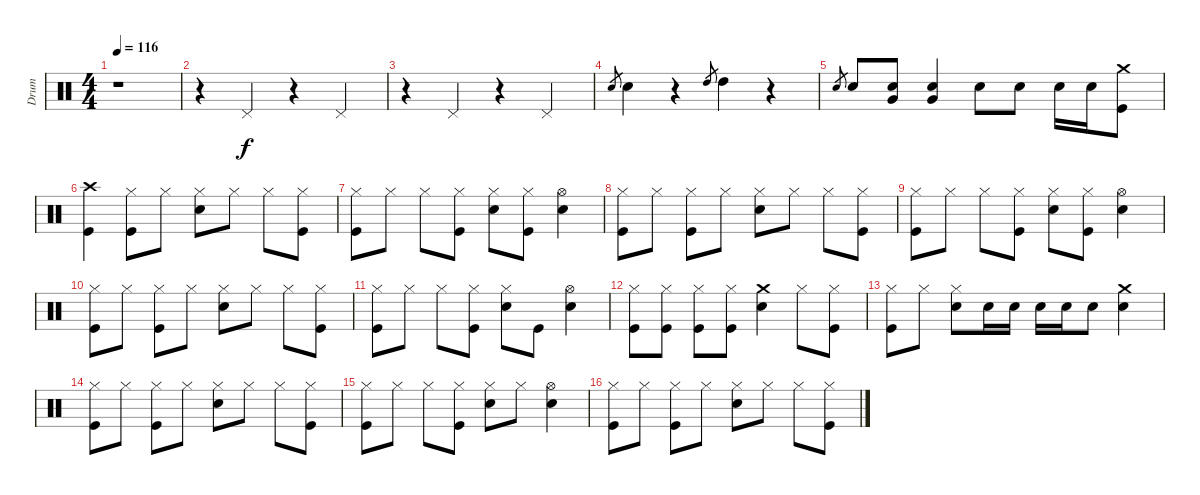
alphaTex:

\track ("Drum" "Drum") {instrument percussion}
\staff {score}
\articulation defaults
\ts (4 4)
\tempo 116
\clef neutral
\ks c
r.1{dy f} |
r.4 "Pedal Hi-Hat (hit)".4 r.4 "Pedal Hi-Hat (hit)".4 |
r.4 "Pedal Hi-Hat (hit)".4 r.4 "Pedal Hi-Hat (hit)".4 |
"Electric Snare (hit)".8{gr} "Electric Snare (hit)".4 r.4 "High Tom (hit)".8{gr} "High Tom (hit)".4 r.4 |
"Electric Snare (hit)".8{gr} "Electric Snare (hit)".8 ("Electric Snare (hit)" "Very Low Tom (hit)").8 ("Electric Snare (hit)" "Very Low Tom (hit)").4 "Electric Snare (hit)".8 "Electric Snare (hit)".8 "Electric Snare (hit)".16 "Electric Snare (hit)".16 ("Kick (hit)" "Crash medium (hit)").8 |
("Kick (hit)" "Crash high (hit)").4 ("Kick (hit)" "Hi-Hat (closed)").8 "Hi-Hat (closed)".8 ("Electric Snare (hit)" "Hi-Hat (closed)").8 "Hi-Hat (closed)".8 "Hi-Hat (closed)".8 ("Kick (hit)" "Hi-Hat (closed)").8 |
("Kick (hit)" "Hi-Hat (closed)").8 "Hi-Hat (closed)".8 "Hi-Hat (closed)".8 ("Kick (hit)" "Hi-Hat (closed)").8 ("Electric Snare (hit)" "Hi-Hat (closed)").8 ("Kick (hit)" "Hi-Hat (closed)").8 ("Electric Snare (hit)" "Hi-Hat (open)").4 |
("Kick (hit)" "Hi-Hat (closed)").8 "Hi-Hat (closed)".8 ("Kick (hit)" "Hi-Hat (closed)").8 "Hi-Hat (closed)".8 ("Electric Snare (hit)" "Hi-Hat (closed)").8 "Hi-Hat (closed)".8 "Hi-Hat (closed)".8 ("Kick (hit)" "Hi-Hat (closed)").8 |
("Kick (hit)" "Hi-Hat (closed)").8 "Hi-Hat (closed)".8 "Hi-Hat (closed)".8 ("Kick (hit)" "Hi-Hat (closed)").8 ("Electric Snare (hit)" "Hi-Hat (closed)").8 ("Kick (hit)" "Hi-Hat (closed)").8 ("Electric Snare (hit)" "Hi-Hat (open)").4 |
("Kick (hit)" "Hi-Hat (closed)").8 "Hi-Hat (closed)".8 ("Kick (hit)" "Hi-Hat (closed)").8 "Hi-Hat (closed)".8 ("Electric Snare (hit)" "Hi-Hat (closed)").8 "Hi-Hat (closed)".8 "Hi-Hat (closed)".8 ("Kick (hit)" "Hi-Hat (closed)").8 |
("Kick (hit)" "Hi-Hat (closed)").8 "Hi-Hat (closed)".8 "Hi-Hat (closed)".8 ("Kick (hit)" "Hi-Hat (closed)").8 ("Electric Snare (hit)" "Hi-Hat (closed)").8 "Kick (hit)".8 ("Electric Snare (hit)" "Hi-Hat (open)").4 |
("Kick (hit)" "Hi-Hat (closed)").8 ("Kick (hit)" "Hi-Hat (closed)").8 ("Kick (hit)" "Hi-Hat (closed)").8 ("Kick (hit)" "Hi-Hat (closed)").8 ("Electric Snare (hit)" "Crash medium (hit)").4 "Hi-Hat (closed)".8 ("Kick (hit)" "Hi-Hat (closed)").8 |
("Kick (hit)" "Hi-Hat (closed)").8 "Hi-Hat (closed)".8 ("Electric Snare (hit)" "Hi-Hat (closed)").8 "Electric Snare (hit)".16 "Electric Snare (hit)".16 "Electric Snare (hit)".16 "Electric Snare (hit)".16 "Electric Snare (hit)".8 ("Electric Snare (hit)" "Crash medium (hit)").4 |
("Kick (hit)" "Hi-Hat (closed)").8 "Hi-Hat (closed)".8 ("Kick (hit)" "Hi-Hat (closed)").8 "Hi-Hat (closed)".8 ("Electric Snare (hit)" "Hi-Hat (closed)").8 "Hi-Hat (closed)".8 "Hi-Hat (closed)".8 ("Kick (hit)" "Hi-Hat (closed)").8 |
("Kick (hit)" "Hi-Hat (closed)").8 "Hi-Hat (closed)".8 "Hi-Hat (closed)".8 ("Kick (hit)" "Hi-Hat (closed)").8 ("Electric Snare (hit)" "Hi-Hat (closed)").8 "Hi-Hat (closed)".8 ("Electric Snare (hit)" "Hi-Hat (open)").4 |
("Kick (hit)" "Hi-Hat (closed)").8 "Hi-Hat (closed)".8 ("Kick (hit)" "Hi-Hat (closed)").8 "Hi-Hat (closed)".8 ("Electric Snare (hit)" "Hi-Hat (closed)").8 "Hi-Hat (closed)".8 "Hi-Hat (closed)".8 ("Kick (hit)" "Hi-Hat (closed)").8
